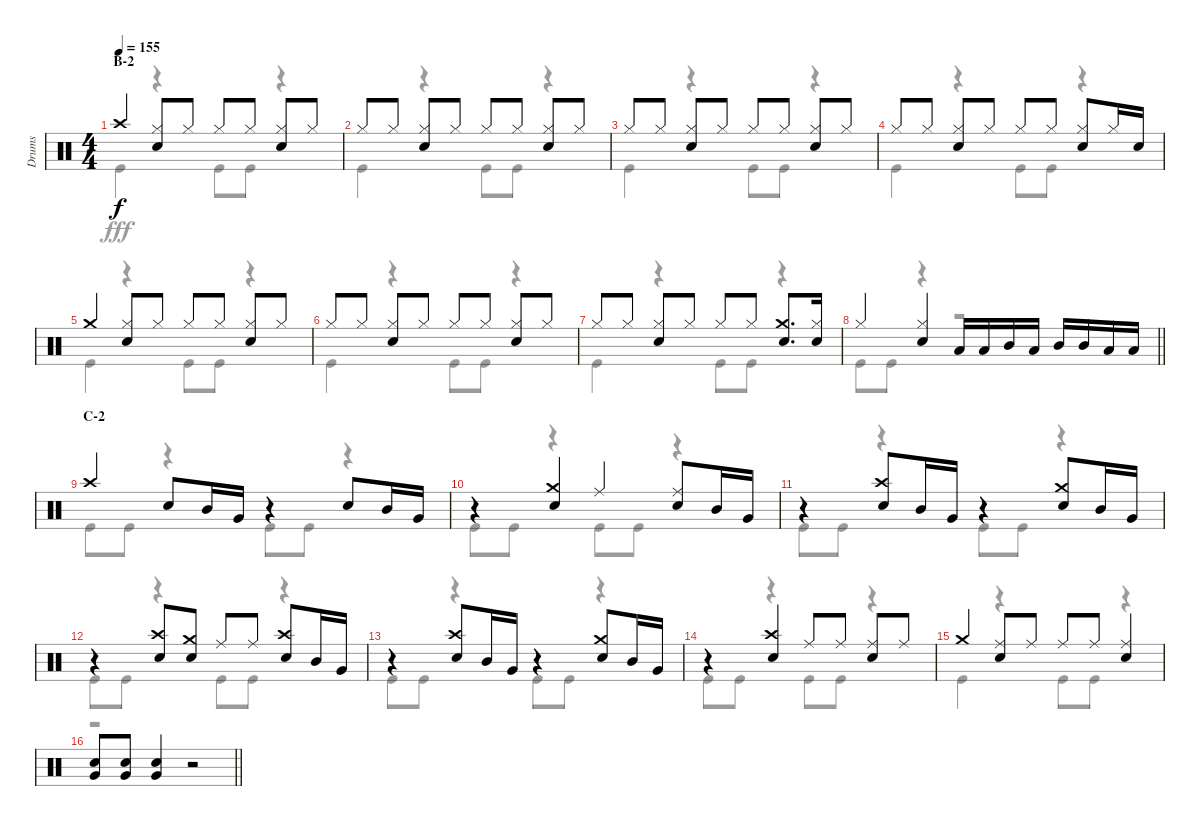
\track ("Drums" "Drums") {instrument percussion}
\staff {score}
\articulation defaults
\voice
\ts (4 4)
\section ("" "B-2")
\tempo 155
\clef neutral
\ks c "Crash high (hit)".4{dy f}
("Hi-Hat (closed)" "Snare (hit) 2").8 "Hi-Hat (closed)".8 "Hi-Hat (closed)".8 "Hi-Hat (closed)".8 ("Hi-Hat (closed)" "Snare (hit) 2").8 "Hi-Hat (closed)".8 |
"Hi-Hat (closed)".8 "Hi-Hat (closed)".8 ("Hi-Hat (closed)" "Snare (hit) 2").8 "Hi-Hat (closed)".8 "Hi-Hat (closed)".8 "Hi-Hat (closed)".8 ("Hi-Hat (closed)" "Snare (hit) 2").8 "Hi-Hat (closed)".8 |
"Hi-Hat (closed)".8 "Hi-Hat (closed)".8 ("Hi-Hat (closed)" "Snare (hit) 2").8 "Hi-Hat (closed)".8 "Hi-Hat (closed)".8 "Hi-Hat (closed)".8 ("Hi-Hat (closed)" "Snare (hit) 2").8 "Hi-Hat (closed)".8 |
"Hi-Hat (closed)".8 "Hi-Hat (closed)".8 ("Hi-Hat (closed)" "Snare (hit) 2").8 "Hi-Hat (closed)".8 "Hi-Hat (closed)".8 "Hi-Hat (closed)".8 ("Hi-Hat (closed)" "Snare (hit) 2").8 "Hi-Hat (closed)".16 "Snare (hit) 2".16 |
"Crash medium (hit)".4 ("Hi-Hat (closed)" "Snare (hit) 2").8 "Hi-Hat (closed)".8 "Hi-Hat (closed)".8 "Hi-Hat (closed)".8 ("Hi-Hat (closed)" "Snare (hit) 2").8 "Hi-Hat (closed)".8 |
"Hi-Hat (closed)".8 "Hi-Hat (closed)".8 ("Hi-Hat (closed)" "Snare (hit) 2").8 "Hi-Hat (closed)".8 "Hi-Hat (closed)".8 "Hi-Hat (closed)".8 ("Hi-Hat (closed)" "Snare (hit) 2").8 "Hi-Hat (closed)".8 |
"Hi-Hat (closed)".8 "Hi-Hat (closed)".8 ("Hi-Hat (closed)" "Snare (hit) 2").8 "Hi-Hat (closed)".8 "Hi-Hat (closed)".8 "Hi-Hat (closed)".8 ("Crash medium (hit)" "Snare (hit) 2").8{d} ("Hi-Hat (closed)" "Snare (hit) 2").16 |
\barLineRight lightlight "Hi-Hat (closed)".4
("Hi-Hat (closed)" "Snare (hit) 2").4 "Low Tom (hit)".16 "Low Tom (hit)".16 "Mid Tom (hit)".16 "Low Tom (hit)".16 "Mid Tom (hit)".16 "Mid Tom (hit)".16 "Low Tom (hit)".16 "Low Tom (hit)".16 |
\section ("" "C-2")
"Crash high (hit)".4 "Snare (hit) 2".8 "Mid Tom (hit)".16 "Very Low Tom (hit)".16 r.4 "Snare (hit) 2".8 "Mid Tom (hit)".16 "Very Low Tom (hit)".16 |
r.4 ("Crash medium (hit)" "Snare (hit) 2").4 "Ride (middle)".4 ("Ride (middle)" "Snare (hit) 2").8 "Mid Tom (hit)".16 "Very Low Tom (hit)".16 |
r.4 ("Crash high (hit)" "Snare (hit) 2").8 "Mid Tom (hit)".16 "Very Low Tom (hit)".16 r.4 ("Crash medium (hit)" "Snare (hit) 2").8 "Mid Tom (hit)".16 "Very Low Tom (hit)".16 |
r.4 ("Crash high (hit)" "Snare (hit) 2").8 ("Crash medium (hit)" "Snare (hit) 2").8 "Ride (middle)".8 "Ride (middle)".8 ("Crash high (hit)" "Snare (hit) 2").8 "Mid Tom (hit)".16 "Very Low Tom (hit)".16 |
r.4 ("Crash high (hit)" "Snare (hit) 2").8 "Mid Tom (hit)".16 "Very Low Tom (hit)".16 r.4 ("Crash medium (hit)" "Snare (hit) 2").8 "Mid Tom (hit)".16 "Very Low Tom (hit)".16 |
r.4 ("Crash high (hit)" "Snare (hit) 2").4 "Ride (middle)".8 "Ride (middle)".8 ("Ride (middle)" "Snare (hit) 2").8 "Ride (middle)".8 |
"Crash medium (hit)".4 ("Ride (middle)" "Snare (hit) 2").8 "Ride (middle)".8 "Ride (middle)".8 "Ride (middle)".8 ("Ride (middle)" "Snare (hit) 2").4 |
\barLineRight lightlight
("Snare (hit) 2" "Very Low Tom (hit)").8 ("Snare (hit) 2" "Very Low Tom (hit)").8 ("Snare (hit) 2" "Very Low Tom (hit)").4 r.2
\voice
\clef neutral
\ottava regular
\simile none
\ks c "Kick (hit)".4{dy fff}
r.4 "Kick (hit)".8 "Kick (hit)".8 r.4 |
"Kick (hit)".4 r.4 "Kick (hit)".8 "Kick (hit)".8 r.4 |
"Kick (hit)".4 r.4 "Kick (hit)".8 "Kick (hit)".8 r.4 |
"Kick (hit)".4 r.4 "Kick (hit)".8 "Kick (hit)".8 r.4 |
"Kick (hit)".4 r.4 "Kick (hit)".8 "Kick (hit)".8 r.4 |
"Kick (hit)".4 r.4 "Kick (hit)".8 "Kick (hit)".8 r.4 |
"Kick (hit)".4 r.4 "Kick (hit)".8 "Kick (hit)".8 r.4 |
\barLineRight lightlight "Kick (hit)".8 "Kick (hit)".8
r.4 r.2 |
"Kick (hit)".8 "Kick (hit)".8 r.4 "Kick (hit)".8 "Kick (hit)".8 r.4 |
"Kick (hit)".8 "Kick (hit)".8 r.4 "Kick (hit)".8 "Kick (hit)".8 r.4 |
"Kick (hit)".8 "Kick (hit)".8 r.4 "Kick (hit)".8 "Kick (hit)".8 r.4 |
"Kick (hit)".8 "Kick (hit)".8 r.4 "Kick (hit)".8 "Kick (hit)".8 r.4 |
"Kick (hit)".8 "Kick (hit)".8 r.4 "Kick (hit)".8 "Kick (hit)".8 r.4 |
"Kick (hit)".8 "Kick (hit)".8 r.4 "Kick (hit)".8 "Kick (hit)".8 r.4 |
"Kick (hit)".4 r.4 "Kick (hit)".8 "Kick (hit)".8 r.4 |
\barLineRight lightlight
r.1
